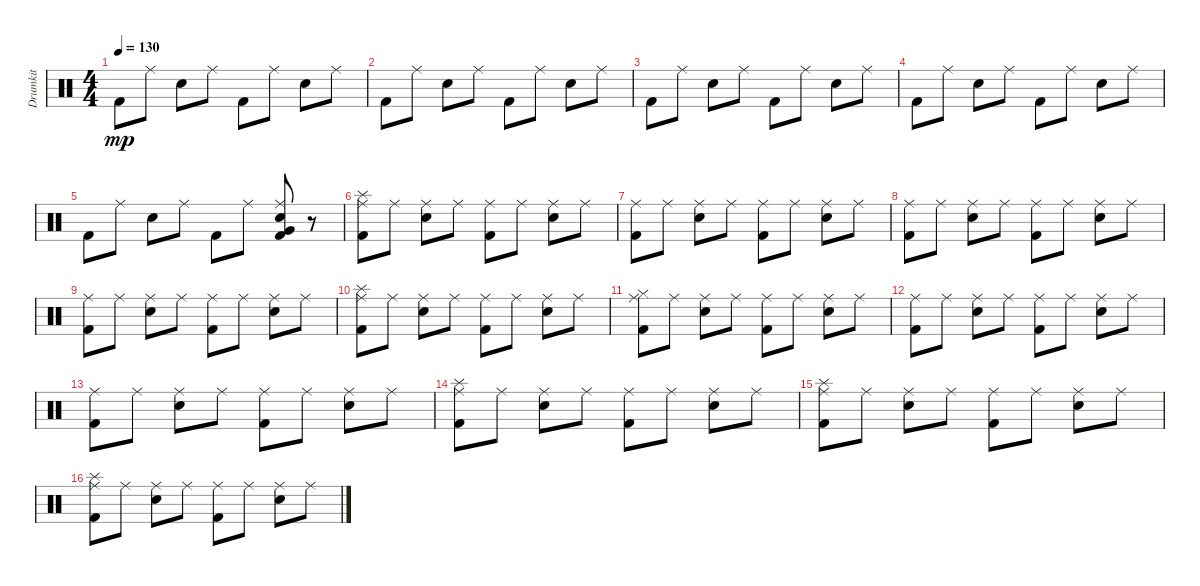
\track ("Drumkit" "Drumkit") {instrument percussion}
\staff {score}
\articulation defaults
\ts (4 4)
\tempo 130
\clef neutral
\ks c "Kick (hit) 2".8{dy mp} "Ride (middle)".8 "Snare (hit) 2".8 "Ride (middle)".8 "Kick (hit) 2".8 "Ride (middle)".8 "Snare (hit) 2".8 "Ride (middle)".8
|
"Kick (hit) 2".8 "Ride (middle)".8 "Snare (hit) 2".8 "Ride (middle)".8 "Kick (hit) 2".8 "Ride (middle)".8 "Snare (hit) 2".8 "Ride (middle)".8 |
"Kick (hit) 2".8 "Ride (middle)".8 "Snare (hit) 2".8 "Ride (middle)".8 "Kick (hit) 2".8 "Ride (middle)".8 "Snare (hit) 2".8 "Ride (middle)".8 |
"Kick (hit) 2".8 "Ride (middle)".8 "Snare (hit) 2".8 "Ride (middle)".8 "Kick (hit) 2".8 "Ride (middle)".8 "Snare (hit) 2".8 "Ride (middle)".8 |
"Kick (hit) 2".8 "Ride (middle)".8 "Snare (hit) 2".8 "Ride (middle)".8 "Kick (hit) 2".8 "Ride (middle)".8 ("Snare (hit) 2" "Ride (middle)" "Kick (hit) 2" "Very Low Tom (hit)").8 r.8 |
("Kick (hit) 2" "Ride (middle)" "Splash (hit)").8 "Ride (middle)".8 ("Snare (hit) 2" "Ride (middle)").8 "Ride (middle)".8 ("Kick (hit) 2" "Ride (middle)").8 "Ride (middle)".8 ("Snare (hit) 2" "Ride (middle)").8 "Ride (middle)".8 |
("Kick (hit) 2" "Ride (middle)").8 "Ride (middle)".8 ("Snare (hit) 2" "Ride (middle)").8 "Ride (middle)".8 ("Kick (hit) 2" "Ride (middle)").8 "Ride (middle)".8 ("Snare (hit) 2" "Ride (middle)").8 "Ride (middle)".8 |
("Kick (hit) 2" "Ride (middle)").8 "Ride (middle)".8 ("Snare (hit) 2" "Ride (middle)").8 "Ride (middle)".8 ("Kick (hit) 2" "Ride (middle)").8 "Ride (middle)".8 ("Snare (hit) 2" "Ride (middle)").8 "Ride (middle)".8 |
("Kick (hit) 2" "Ride (middle)").8 "Ride (middle)".8 ("Snare (hit) 2" "Ride (middle)").8 "Ride (middle)".8 ("Kick (hit) 2" "Ride (middle)").8 "Ride (middle)".8 ("Snare (hit) 2" "Ride (middle)").8 "Ride (middle)".8 |
("Kick (hit) 2" "Ride (middle)" "Splash (hit)").8 "Ride (middle)".8 ("Snare (hit) 2" "Ride (middle)").8 "Ride (middle)".8 ("Kick (hit) 2" "Ride (middle)").8 "Ride (middle)".8 ("Snare (hit) 2" "Ride (middle)").8 "Ride (middle)".8 |
("Kick (hit) 2" "Ride (middle)" "Hi-Hat (closed)").8 "Ride (middle)".8 ("Snare (hit) 2" "Ride (middle)").8 "Ride (middle)".8 ("Kick (hit) 2" "Ride (middle)").8 "Ride (middle)".8 ("Snare (hit) 2" "Ride (middle)").8 "Ride (middle)".8 |
("Kick (hit) 2" "Ride (middle)").8 "Ride (middle)".8 ("Snare (hit) 2" "Ride (middle)").8 "Ride (middle)".8 ("Kick (hit) 2" "Ride (middle)").8 "Ride (middle)".8 ("Snare (hit) 2" "Ride (middle)").8 "Ride (middle)".8 |
("Kick (hit) 2" "Ride (middle)").8 "Ride (middle)".8 ("Snare (hit) 2" "Ride (middle)").8 "Ride (middle)".8 ("Kick (hit) 2" "Ride (middle)").8 "Ride (middle)".8 ("Snare (hit) 2" "Ride (middle)").8 "Ride (middle)".8 |
("Kick (hit) 2" "Ride (middle)" "Splash (hit)").8 "Ride (middle)".8 ("Snare (hit) 2" "Ride (middle)").8 "Ride (middle)".8 ("Kick (hit) 2" "Ride (middle)").8 "Ride (middle)".8 ("Snare (hit) 2" "Ride (middle)").8 "Ride (middle)".8 |
("Kick (hit) 2" "Ride (middle)" "Splash (hit)").8 "Ride (middle)".8 ("Snare (hit) 2" "Ride (middle)").8 "Ride (middle)".8 ("Kick (hit) 2" "Ride (middle)").8 "Ride (middle)".8 ("Snare (hit) 2" "Ride (middle)").8 "Ride (middle)".8 |
("Kick (hit) 2" "Ride (middle)" "Splash (hit)").8 "Ride (middle)".8 ("Snare (hit) 2" "Ride (middle)").8 "Ride (middle)".8 ("Kick (hit) 2" "Ride (middle)").8 "Ride (middle)".8 ("Snare (hit) 2" "Ride (middle)").8 "Ride (middle)".8
